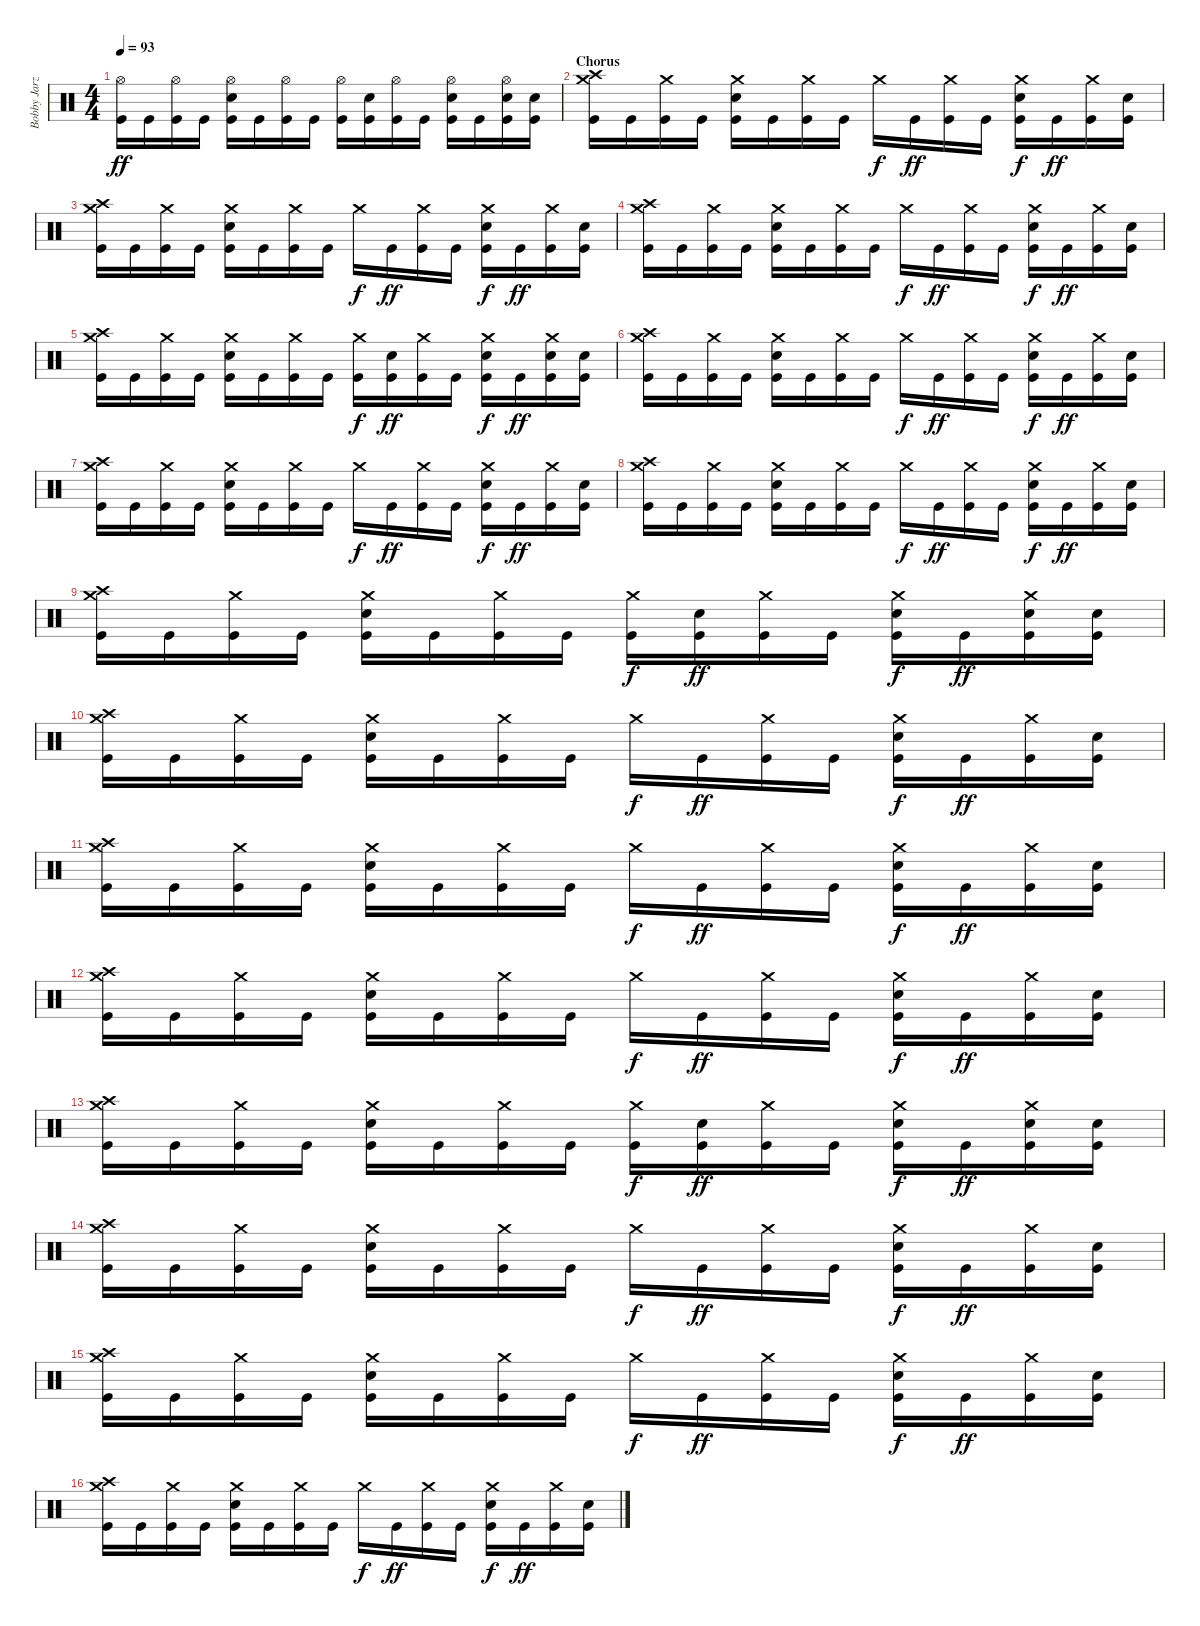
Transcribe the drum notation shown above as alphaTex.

\track ("Bobby Jarzombek" "Bobby Jarz") {instrument percussion}
\staff {score}
\articulation defaults
\ts (4 4)
\tempo 93
\clef neutral
\ks c
("Hi-Hat (open)" "Kick (hit)").16{dy ff} "Kick (hit)".16 ("Hi-Hat (open)" "Kick (hit)").16 "Kick (hit)".16 ("Hi-Hat (open)" "Electric Snare (hit)" "Kick (hit)").16 "Kick (hit)".16 ("Hi-Hat (open)" "Kick (hit)").16 "Kick (hit)".16 ("Hi-Hat (open)" "Kick (hit)").16 ("Electric Snare (hit)" "Kick (hit)").16 ("Hi-Hat (open)" "Kick (hit)").16 "Kick (hit)".16 ("Hi-Hat (open)" "Electric Snare (hit)" "Kick (hit)").16 "Kick (hit)".16 ("Hi-Hat (open)" "Electric Snare (hit)" "Kick (hit)").16 ("Electric Snare (hit)" "Kick (hit)").16 |
\section ("" "Chorus")
("Crash high (hit)" "Crash medium (hit)" "Kick (hit)").16 "Kick (hit)".16 ("Crash medium (hit)" "Kick (hit)").16 "Kick (hit)".16 ("Crash medium (hit)" "Electric Snare (hit)" "Kick (hit)").16 "Kick (hit)".16 ("Crash medium (hit)" "Kick (hit)").16 "Kick (hit)".16 "Crash medium (hit)".16{dy f} "Kick (hit)".16{dy ff} ("Crash medium (hit)" "Kick (hit)").16 "Kick (hit)".16 ("Crash medium (hit)" "Electric Snare (hit)" "Kick (hit)").16{dy f} "Kick (hit)".16{dy ff} ("Crash medium (hit)" "Kick (hit)").16 ("Electric Snare (hit)" "Kick (hit)").16 |
("Crash medium (hit)" "Crash high (hit)" "Kick (hit)").16 "Kick (hit)".16 ("Crash medium (hit)" "Kick (hit)").16 "Kick (hit)".16 ("Crash medium (hit)" "Electric Snare (hit)" "Kick (hit)").16 "Kick (hit)".16 ("Crash medium (hit)" "Kick (hit)").16 "Kick (hit)".16 "Crash medium (hit)".16{dy f} "Kick (hit)".16{dy ff} ("Crash medium (hit)" "Kick (hit)").16 "Kick (hit)".16 ("Crash medium (hit)" "Electric Snare (hit)" "Kick (hit)").16{dy f} "Kick (hit)".16{dy ff} ("Crash medium (hit)" "Kick (hit)").16 ("Electric Snare (hit)" "Kick (hit)").16 |
("Crash high (hit)" "Crash medium (hit)" "Kick (hit)").16 "Kick (hit)".16 ("Crash medium (hit)" "Kick (hit)").16 "Kick (hit)".16 ("Crash medium (hit)" "Electric Snare (hit)" "Kick (hit)").16 "Kick (hit)".16 ("Crash medium (hit)" "Kick (hit)").16 "Kick (hit)".16 "Crash medium (hit)".16{dy f} "Kick (hit)".16{dy ff} ("Crash medium (hit)" "Kick (hit)").16 "Kick (hit)".16 ("Crash medium (hit)" "Electric Snare (hit)" "Kick (hit)").16{dy f} "Kick (hit)".16{dy ff} ("Crash medium (hit)" "Kick (hit)").16 ("Electric Snare (hit)" "Kick (hit)").16 |
("Crash medium (hit)" "Crash high (hit)" "Kick (hit)").16 "Kick (hit)".16 ("Crash medium (hit)" "Kick (hit)").16 "Kick (hit)".16 ("Crash medium (hit)" "Electric Snare (hit)" "Kick (hit)").16 "Kick (hit)".16 ("Crash medium (hit)" "Kick (hit)").16 "Kick (hit)".16 ("Crash medium (hit)" "Kick (hit)").16{dy f} ("Electric Snare (hit)" "Kick (hit)").16{dy ff} ("Crash medium (hit)" "Kick (hit)").16 "Kick (hit)".16 ("Crash medium (hit)" "Electric Snare (hit)" "Kick (hit)").16{dy f} "Kick (hit)".16{dy ff} ("Crash medium (hit)" "Electric Snare (hit)" "Kick (hit)").16 ("Electric Snare (hit)" "Kick (hit)").16 |
("Crash high (hit)" "Crash medium (hit)" "Kick (hit)").16 "Kick (hit)".16 ("Crash medium (hit)" "Kick (hit)").16 "Kick (hit)".16 ("Crash medium (hit)" "Electric Snare (hit)" "Kick (hit)").16 "Kick (hit)".16 ("Crash medium (hit)" "Kick (hit)").16 "Kick (hit)".16 "Crash medium (hit)".16{dy f} "Kick (hit)".16{dy ff} ("Crash medium (hit)" "Kick (hit)").16 "Kick (hit)".16 ("Crash medium (hit)" "Electric Snare (hit)" "Kick (hit)").16{dy f} "Kick (hit)".16{dy ff} ("Crash medium (hit)" "Kick (hit)").16 ("Electric Snare (hit)" "Kick (hit)").16 |
("Crash medium (hit)" "Crash high (hit)" "Kick (hit)").16 "Kick (hit)".16 ("Crash medium (hit)" "Kick (hit)").16 "Kick (hit)".16 ("Crash medium (hit)" "Electric Snare (hit)" "Kick (hit)").16 "Kick (hit)".16 ("Crash medium (hit)" "Kick (hit)").16 "Kick (hit)".16 "Crash medium (hit)".16{dy f} "Kick (hit)".16{dy ff} ("Crash medium (hit)" "Kick (hit)").16 "Kick (hit)".16 ("Crash medium (hit)" "Electric Snare (hit)" "Kick (hit)").16{dy f} "Kick (hit)".16{dy ff} ("Crash medium (hit)" "Kick (hit)").16 ("Electric Snare (hit)" "Kick (hit)").16 |
("Crash high (hit)" "Crash medium (hit)" "Kick (hit)").16 "Kick (hit)".16 ("Crash medium (hit)" "Kick (hit)").16 "Kick (hit)".16 ("Crash medium (hit)" "Electric Snare (hit)" "Kick (hit)").16 "Kick (hit)".16 ("Crash medium (hit)" "Kick (hit)").16 "Kick (hit)".16 "Crash medium (hit)".16{dy f} "Kick (hit)".16{dy ff} ("Crash medium (hit)" "Kick (hit)").16 "Kick (hit)".16 ("Crash medium (hit)" "Electric Snare (hit)" "Kick (hit)").16{dy f} "Kick (hit)".16{dy ff} ("Crash medium (hit)" "Kick (hit)").16 ("Electric Snare (hit)" "Kick (hit)").16 |
("Crash medium (hit)" "Crash high (hit)" "Kick (hit)").16 "Kick (hit)".16 ("Crash medium (hit)" "Kick (hit)").16 "Kick (hit)".16 ("Crash medium (hit)" "Electric Snare (hit)" "Kick (hit)").16 "Kick (hit)".16 ("Crash medium (hit)" "Kick (hit)").16 "Kick (hit)".16 ("Crash medium (hit)" "Kick (hit)").16{dy f} ("Electric Snare (hit)" "Kick (hit)").16{dy ff} ("Crash medium (hit)" "Kick (hit)").16 "Kick (hit)".16 ("Crash medium (hit)" "Electric Snare (hit)" "Kick (hit)").16{dy f} "Kick (hit)".16{dy ff} ("Crash medium (hit)" "Electric Snare (hit)" "Kick (hit)").16 ("Electric Snare (hit)" "Kick (hit)").16 |
("Crash high (hit)" "Crash medium (hit)" "Kick (hit)").16 "Kick (hit)".16 ("Crash medium (hit)" "Kick (hit)").16 "Kick (hit)".16 ("Crash medium (hit)" "Electric Snare (hit)" "Kick (hit)").16 "Kick (hit)".16 ("Crash medium (hit)" "Kick (hit)").16 "Kick (hit)".16 "Crash medium (hit)".16{dy f} "Kick (hit)".16{dy ff} ("Crash medium (hit)" "Kick (hit)").16 "Kick (hit)".16 ("Crash medium (hit)" "Electric Snare (hit)" "Kick (hit)").16{dy f} "Kick (hit)".16{dy ff} ("Crash medium (hit)" "Kick (hit)").16 ("Electric Snare (hit)" "Kick (hit)").16 |
("Crash medium (hit)" "Crash high (hit)" "Kick (hit)").16 "Kick (hit)".16 ("Crash medium (hit)" "Kick (hit)").16 "Kick (hit)".16 ("Crash medium (hit)" "Electric Snare (hit)" "Kick (hit)").16 "Kick (hit)".16 ("Crash medium (hit)" "Kick (hit)").16 "Kick (hit)".16 "Crash medium (hit)".16{dy f} "Kick (hit)".16{dy ff} ("Crash medium (hit)" "Kick (hit)").16 "Kick (hit)".16 ("Crash medium (hit)" "Electric Snare (hit)" "Kick (hit)").16{dy f} "Kick (hit)".16{dy ff} ("Crash medium (hit)" "Kick (hit)").16 ("Electric Snare (hit)" "Kick (hit)").16 |
("Crash high (hit)" "Crash medium (hit)" "Kick (hit)").16 "Kick (hit)".16 ("Crash medium (hit)" "Kick (hit)").16 "Kick (hit)".16 ("Crash medium (hit)" "Electric Snare (hit)" "Kick (hit)").16 "Kick (hit)".16 ("Crash medium (hit)" "Kick (hit)").16 "Kick (hit)".16 "Crash medium (hit)".16{dy f} "Kick (hit)".16{dy ff} ("Crash medium (hit)" "Kick (hit)").16 "Kick (hit)".16 ("Crash medium (hit)" "Electric Snare (hit)" "Kick (hit)").16{dy f} "Kick (hit)".16{dy ff} ("Crash medium (hit)" "Kick (hit)").16 ("Electric Snare (hit)" "Kick (hit)").16 |
("Crash medium (hit)" "Crash high (hit)" "Kick (hit)").16 "Kick (hit)".16 ("Crash medium (hit)" "Kick (hit)").16 "Kick (hit)".16 ("Crash medium (hit)" "Electric Snare (hit)" "Kick (hit)").16 "Kick (hit)".16 ("Crash medium (hit)" "Kick (hit)").16 "Kick (hit)".16 ("Crash medium (hit)" "Kick (hit)").16{dy f} ("Electric Snare (hit)" "Kick (hit)").16{dy ff} ("Crash medium (hit)" "Kick (hit)").16 "Kick (hit)".16 ("Crash medium (hit)" "Electric Snare (hit)" "Kick (hit)").16{dy f} "Kick (hit)".16{dy ff} ("Crash medium (hit)" "Electric Snare (hit)" "Kick (hit)").16 ("Electric Snare (hit)" "Kick (hit)").16 |
("Crash high (hit)" "Crash medium (hit)" "Kick (hit)").16 "Kick (hit)".16 ("Crash medium (hit)" "Kick (hit)").16 "Kick (hit)".16 ("Crash medium (hit)" "Electric Snare (hit)" "Kick (hit)").16 "Kick (hit)".16 ("Crash medium (hit)" "Kick (hit)").16 "Kick (hit)".16 "Crash medium (hit)".16{dy f} "Kick (hit)".16{dy ff} ("Crash medium (hit)" "Kick (hit)").16 "Kick (hit)".16 ("Crash medium (hit)" "Electric Snare (hit)" "Kick (hit)").16{dy f} "Kick (hit)".16{dy ff} ("Crash medium (hit)" "Kick (hit)").16 ("Electric Snare (hit)" "Kick (hit)").16 |
("Crash high (hit)" "Crash medium (hit)" "Kick (hit)").16 "Kick (hit)".16 ("Crash medium (hit)" "Kick (hit)").16 "Kick (hit)".16 ("Crash medium (hit)" "Electric Snare (hit)" "Kick (hit)").16 "Kick (hit)".16 ("Crash medium (hit)" "Kick (hit)").16 "Kick (hit)".16 "Crash medium (hit)".16{dy f} "Kick (hit)".16{dy ff} ("Crash medium (hit)" "Kick (hit)").16 "Kick (hit)".16 ("Crash medium (hit)" "Electric Snare (hit)" "Kick (hit)").16{dy f} "Kick (hit)".16{dy ff} ("Crash medium (hit)" "Kick (hit)").16 ("Electric Snare (hit)" "Kick (hit)").16 |
("Crash high (hit)" "Crash medium (hit)" "Kick (hit)").16 "Kick (hit)".16 ("Crash medium (hit)" "Kick (hit)").16 "Kick (hit)".16 ("Crash medium (hit)" "Electric Snare (hit)" "Kick (hit)").16 "Kick (hit)".16 ("Crash medium (hit)" "Kick (hit)").16 "Kick (hit)".16 "Crash medium (hit)".16{dy f} "Kick (hit)".16{dy ff} ("Crash medium (hit)" "Kick (hit)").16 "Kick (hit)".16 ("Crash medium (hit)" "Electric Snare (hit)" "Kick (hit)").16{dy f} "Kick (hit)".16{dy ff} ("Crash medium (hit)" "Kick (hit)").16 ("Electric Snare (hit)" "Kick (hit)").16
